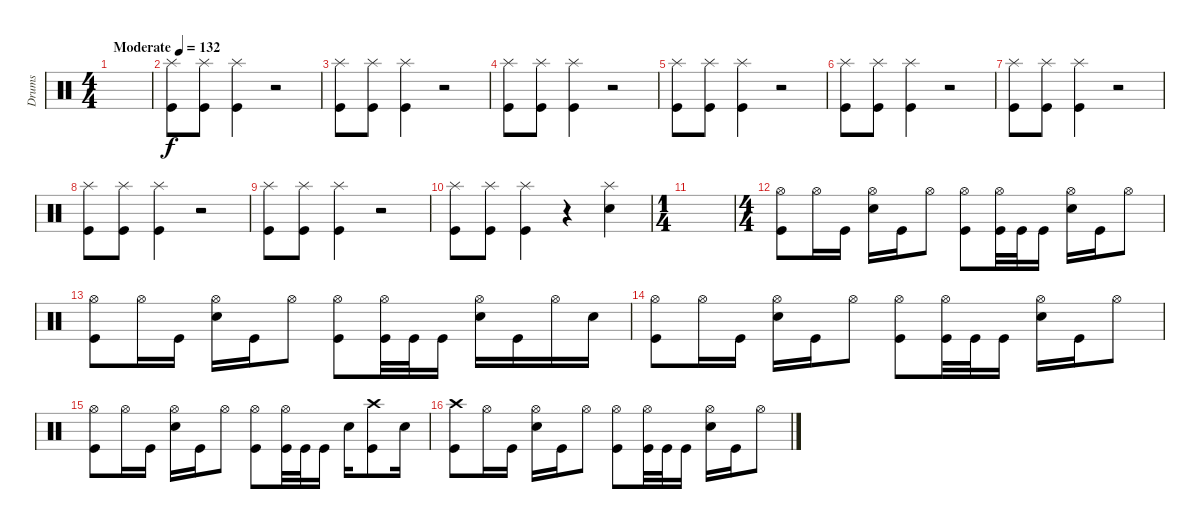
\track ("Drums" "Drums") {instrument percussion}
\staff {score}
\articulation defaults
\ts (4 4)
\tempo (132 "Moderate")
\clef neutral
\ks c
|
("Splash (hit)" "Kick (hit)").8 ("Splash (hit)" "Kick (hit)").8 ("Splash (hit)" "Kick (hit)").4 r.2 |
("Splash (hit)" "Kick (hit)").8 ("Splash (hit)" "Kick (hit)").8 ("Splash (hit)" "Kick (hit)").4 r.2 |
("Splash (hit)" "Kick (hit)").8 ("Splash (hit)" "Kick (hit)").8 ("Splash (hit)" "Kick (hit)").4 r.2 |
("Splash (hit)" "Kick (hit)").8 ("Splash (hit)" "Kick (hit)").8 ("Splash (hit)" "Kick (hit)").4 r.2 |
("Splash (hit)" "Kick (hit)").8 ("Splash (hit)" "Kick (hit)").8 ("Splash (hit)" "Kick (hit)").4 r.2 |
("Splash (hit)" "Kick (hit)").8 ("Splash (hit)" "Kick (hit)").8 ("Splash (hit)" "Kick (hit)").4 r.2 |
("Splash (hit)" "Kick (hit)").8 ("Splash (hit)" "Kick (hit)").8 ("Splash (hit)" "Kick (hit)").4 r.2 |
("Splash (hit)" "Kick (hit)").8 ("Splash (hit)" "Kick (hit)").8 ("Splash (hit)" "Kick (hit)").4 r.2 |
("Splash (hit)" "Kick (hit)").8 ("Splash (hit)" "Kick (hit)").8 ("Splash (hit)" "Kick (hit)").4 r.4 ("Splash (hit)" "Snare (hit)").4 |
\ts (1 4)
|
\ts (4 4)
("Hi-Hat (open)" "Kick (hit)").8 "Hi-Hat (open)".16 "Kick (hit)".16 ("Hi-Hat (open)" "Snare (hit) 2").16 "Kick (hit)".16 "Hi-Hat (open)".8 ("Hi-Hat (open)" "Kick (hit)").8 ("Hi-Hat (open)" "Kick (hit)").32 "Kick (hit)".32 "Kick (hit)".16 ("Hi-Hat (open)" "Snare (hit) 2").16 "Kick (hit)".16 "Hi-Hat (open)".8 |
("Hi-Hat (open)" "Kick (hit)").8 "Hi-Hat (open)".16 "Kick (hit)".16 ("Hi-Hat (open)" "Snare (hit) 2").16 "Kick (hit)".16 "Hi-Hat (open)".8 ("Hi-Hat (open)" "Kick (hit)").8 ("Hi-Hat (open)" "Kick (hit)").32 "Kick (hit)".32 "Kick (hit)".16 ("Hi-Hat (open)" "Snare (hit) 2").16 "Kick (hit)".16 "Hi-Hat (open)".16 "Snare (hit) 2".16 |
("Hi-Hat (open)" "Kick (hit)").8 "Hi-Hat (open)".16 "Kick (hit)".16 ("Hi-Hat (open)" "Snare (hit) 2").16 "Kick (hit)".16 "Hi-Hat (open)".8 ("Hi-Hat (open)" "Kick (hit)").8 ("Hi-Hat (open)" "Kick (hit)").32 "Kick (hit)".32 "Kick (hit)".16 ("Hi-Hat (open)" "Snare (hit) 2").16 "Kick (hit)".16 "Hi-Hat (open)".8 |
("Hi-Hat (open)" "Kick (hit)").8 "Hi-Hat (open)".16 "Kick (hit)".16 ("Hi-Hat (open)" "Snare (hit) 2").16 "Kick (hit)".16 "Hi-Hat (open)".8 ("Hi-Hat (open)" "Kick (hit)").8 ("Hi-Hat (open)" "Kick (hit)").32 "Kick (hit)".32 "Kick (hit)".16 "Snare (hit) 2".16 ("Crash high (hit)" "Kick (hit)").8 "Snare (hit) 2".16 |
("Crash high (hit)" "Kick (hit)").8 "Hi-Hat (open)".16 "Kick (hit)".16 ("Hi-Hat (open)" "Snare (hit) 2").16 "Kick (hit)".16 "Hi-Hat (open)".8 ("Hi-Hat (open)" "Kick (hit)").8 ("Hi-Hat (open)" "Kick (hit)").32 "Kick (hit)".32 "Kick (hit)".16 ("Hi-Hat (open)" "Snare (hit) 2").16 "Kick (hit)".16 "Hi-Hat (open)".8
